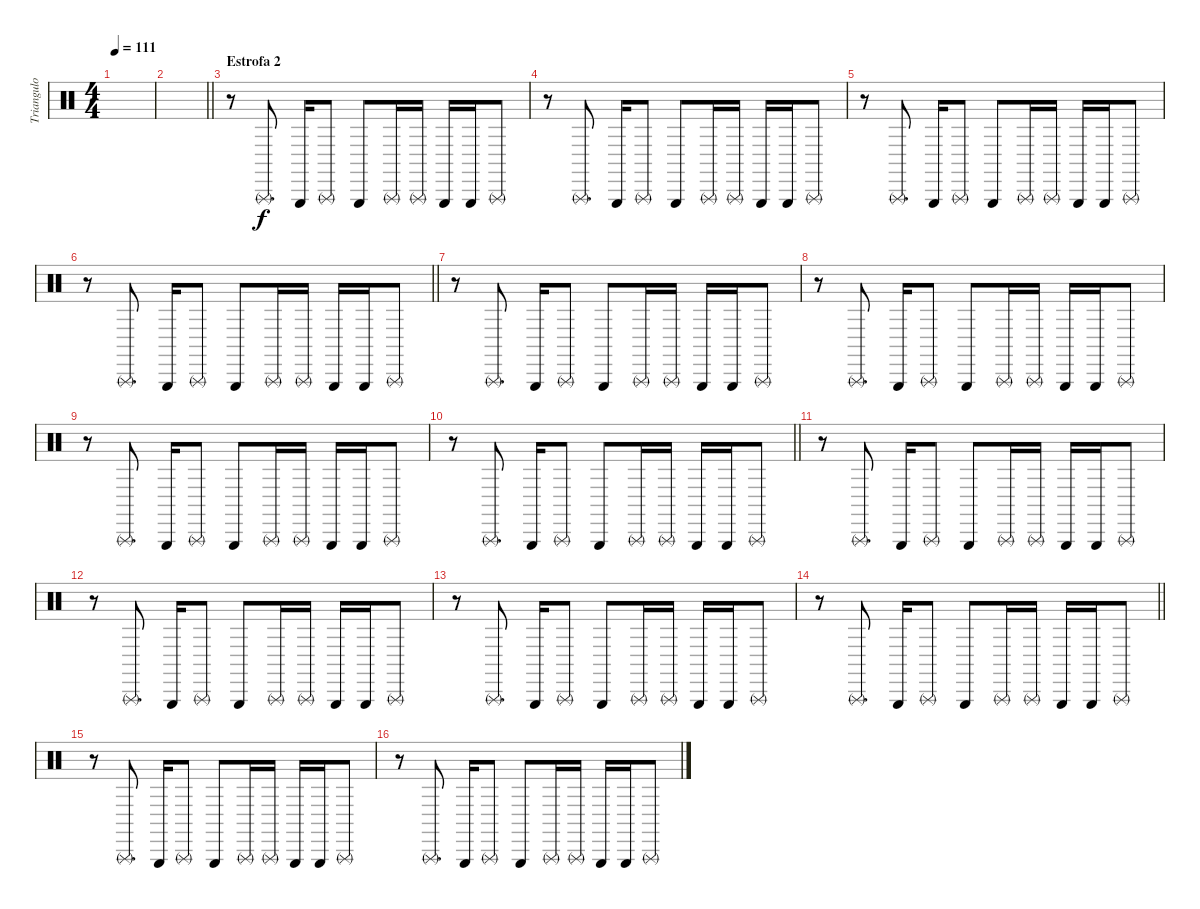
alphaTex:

\track ("Triangulo" "Triangulo") {instrument percussion}
\staff {score}
\articulation defaults
\ts (4 4)
\tempo 111
\clef neutral
\ks c
|
\barLineRight lightlight
|
\section ("" "Estrofa 2")
r.8 "Triangle (rnute)".8{d} "Triangle (hit)".16 "Triangle (rnute)".8 "Triangle (hit)".8 "Triangle (rnute)".16 "Triangle (rnute)".16 "Triangle (hit)".16 "Triangle (hit)".16 "Triangle (rnute)".8 |
r.8 "Triangle (rnute)".8{d} "Triangle (hit)".16 "Triangle (rnute)".8 "Triangle (hit)".8 "Triangle (rnute)".16 "Triangle (rnute)".16 "Triangle (hit)".16 "Triangle (hit)".16 "Triangle (rnute)".8 |
r.8 "Triangle (rnute)".8{d} "Triangle (hit)".16 "Triangle (rnute)".8 "Triangle (hit)".8 "Triangle (rnute)".16 "Triangle (rnute)".16 "Triangle (hit)".16 "Triangle (hit)".16 "Triangle (rnute)".8 |
\barLineRight lightlight
r.8 "Triangle (rnute)".8{d} "Triangle (hit)".16 "Triangle (rnute)".8 "Triangle (hit)".8 "Triangle (rnute)".16 "Triangle (rnute)".16 "Triangle (hit)".16 "Triangle (hit)".16 "Triangle (rnute)".8 |
r.8 "Triangle (rnute)".8{d} "Triangle (hit)".16 "Triangle (rnute)".8 "Triangle (hit)".8 "Triangle (rnute)".16 "Triangle (rnute)".16 "Triangle (hit)".16 "Triangle (hit)".16 "Triangle (rnute)".8 |
r.8 "Triangle (rnute)".8{d} "Triangle (hit)".16 "Triangle (rnute)".8 "Triangle (hit)".8 "Triangle (rnute)".16 "Triangle (rnute)".16 "Triangle (hit)".16 "Triangle (hit)".16 "Triangle (rnute)".8 |
r.8 "Triangle (rnute)".8{d} "Triangle (hit)".16 "Triangle (rnute)".8 "Triangle (hit)".8 "Triangle (rnute)".16 "Triangle (rnute)".16 "Triangle (hit)".16 "Triangle (hit)".16 "Triangle (rnute)".8 |
\barLineRight lightlight
r.8 "Triangle (rnute)".8{d} "Triangle (hit)".16 "Triangle (rnute)".8 "Triangle (hit)".8 "Triangle (rnute)".16 "Triangle (rnute)".16 "Triangle (hit)".16 "Triangle (hit)".16 "Triangle (rnute)".8 |
r.8 "Triangle (rnute)".8{d} "Triangle (hit)".16 "Triangle (rnute)".8 "Triangle (hit)".8 "Triangle (rnute)".16 "Triangle (rnute)".16 "Triangle (hit)".16 "Triangle (hit)".16 "Triangle (rnute)".8 |
r.8 "Triangle (rnute)".8{d} "Triangle (hit)".16 "Triangle (rnute)".8 "Triangle (hit)".8 "Triangle (rnute)".16 "Triangle (rnute)".16 "Triangle (hit)".16 "Triangle (hit)".16 "Triangle (rnute)".8 |
r.8 "Triangle (rnute)".8{d} "Triangle (hit)".16 "Triangle (rnute)".8 "Triangle (hit)".8 "Triangle (rnute)".16 "Triangle (rnute)".16 "Triangle (hit)".16 "Triangle (hit)".16 "Triangle (rnute)".8 |
\barLineRight lightlight
r.8 "Triangle (rnute)".8{d} "Triangle (hit)".16 "Triangle (rnute)".8 "Triangle (hit)".8 "Triangle (rnute)".16 "Triangle (rnute)".16 "Triangle (hit)".16 "Triangle (hit)".16 "Triangle (rnute)".8 |
r.8 "Triangle (rnute)".8{d} "Triangle (hit)".16 "Triangle (rnute)".8 "Triangle (hit)".8 "Triangle (rnute)".16 "Triangle (rnute)".16 "Triangle (hit)".16 "Triangle (hit)".16 "Triangle (rnute)".8 |
r.8 "Triangle (rnute)".8{d} "Triangle (hit)".16 "Triangle (rnute)".8 "Triangle (hit)".8 "Triangle (rnute)".16 "Triangle (rnute)".16 "Triangle (hit)".16 "Triangle (hit)".16 "Triangle (rnute)".8
